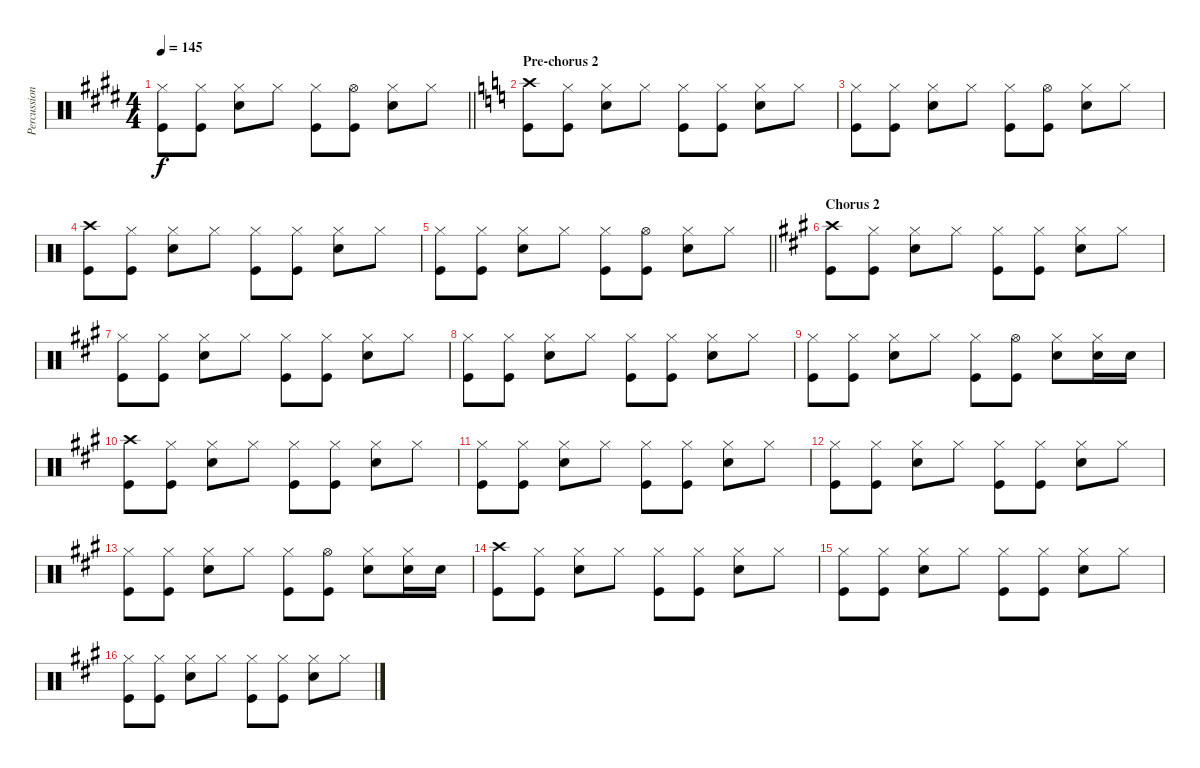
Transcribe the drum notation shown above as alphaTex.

\track ("Percussion" "Percussion") {instrument percussion}
\staff {score}
\articulation defaults
\ts (4 4)
\tempo 145
\clef neutral
\barLineRight lightlight
\ks e
("Hi-Hat (closed)" "Kick (hit)").8{dy f} ("Hi-Hat (closed)" "Kick (hit)").8 ("Hi-Hat (closed)" "Snare (hit) 2").8 "Hi-Hat (closed)".8 ("Hi-Hat (closed)" "Kick (hit)").8 ("Hi-Hat (open)" "Kick (hit)").8 ("Hi-Hat (closed)" "Snare (hit) 2").8 "Hi-Hat (closed)".8 |
\section ("" "Pre-chorus 2")
\ks c
("Crash high (hit)" "Kick (hit)").8 ("Hi-Hat (closed)" "Kick (hit)").8 ("Hi-Hat (closed)" "Snare (hit) 2").8 "Hi-Hat (closed)".8 ("Hi-Hat (closed)" "Kick (hit)").8 ("Hi-Hat (closed)" "Kick (hit)").8 ("Hi-Hat (closed)" "Snare (hit) 2").8 "Hi-Hat (closed)".8 |
("Hi-Hat (closed)" "Kick (hit)").8 ("Hi-Hat (closed)" "Kick (hit)").8 ("Hi-Hat (closed)" "Snare (hit) 2").8 "Hi-Hat (closed)".8 ("Hi-Hat (closed)" "Kick (hit)").8 ("Hi-Hat (open)" "Kick (hit)").8 ("Hi-Hat (closed)" "Snare (hit) 2").8 "Hi-Hat (closed)".8 |
("Crash high (hit)" "Kick (hit)").8 ("Hi-Hat (closed)" "Kick (hit)").8 ("Hi-Hat (closed)" "Snare (hit) 2").8 "Hi-Hat (closed)".8 ("Hi-Hat (closed)" "Kick (hit)").8 ("Hi-Hat (closed)" "Kick (hit)").8 ("Hi-Hat (closed)" "Snare (hit) 2").8 "Hi-Hat (closed)".8 |
\barLineRight lightlight
("Hi-Hat (closed)" "Kick (hit)").8 ("Hi-Hat (closed)" "Kick (hit)").8 ("Hi-Hat (closed)" "Snare (hit) 2").8 "Hi-Hat (closed)".8 ("Hi-Hat (closed)" "Kick (hit)").8 ("Hi-Hat (open)" "Kick (hit)").8 ("Hi-Hat (closed)" "Snare (hit) 2").8 "Hi-Hat (closed)".8 |
\section ("" "Chorus 2")
\ks a
("Crash high (hit)" "Kick (hit)").8 ("Hi-Hat (closed)" "Kick (hit)").8 ("Hi-Hat (closed)" "Snare (hit) 2").8 "Hi-Hat (closed)".8 ("Hi-Hat (closed)" "Kick (hit)").8 ("Hi-Hat (closed)" "Kick (hit)").8 ("Hi-Hat (closed)" "Snare (hit) 2").8 "Hi-Hat (closed)".8 |
("Hi-Hat (closed)" "Kick (hit)").8 ("Hi-Hat (closed)" "Kick (hit)").8 ("Hi-Hat (closed)" "Snare (hit) 2").8 "Hi-Hat (closed)".8 ("Hi-Hat (closed)" "Kick (hit)").8 ("Hi-Hat (closed)" "Kick (hit)").8 ("Hi-Hat (closed)" "Snare (hit) 2").8 "Hi-Hat (closed)".8 |
("Hi-Hat (closed)" "Kick (hit)").8 ("Hi-Hat (closed)" "Kick (hit)").8 ("Hi-Hat (closed)" "Snare (hit) 2").8 "Hi-Hat (closed)".8 ("Hi-Hat (closed)" "Kick (hit)").8 ("Hi-Hat (closed)" "Kick (hit)").8 ("Hi-Hat (closed)" "Snare (hit) 2").8 "Hi-Hat (closed)".8 |
("Hi-Hat (closed)" "Kick (hit)").8 ("Hi-Hat (closed)" "Kick (hit)").8 ("Hi-Hat (closed)" "Snare (hit) 2").8 "Hi-Hat (closed)".8 ("Hi-Hat (closed)" "Kick (hit)").8 ("Hi-Hat (open)" "Kick (hit)").8 ("Hi-Hat (closed)" "Snare (hit) 2").8 ("Hi-Hat (closed)" "Snare (hit) 2").16 "Snare (hit) 2".16 |
("Crash high (hit)" "Kick (hit)").8 ("Hi-Hat (closed)" "Kick (hit)").8 ("Hi-Hat (closed)" "Snare (hit) 2").8 "Hi-Hat (closed)".8 ("Hi-Hat (closed)" "Kick (hit)").8 ("Hi-Hat (closed)" "Kick (hit)").8 ("Hi-Hat (closed)" "Snare (hit) 2").8 "Hi-Hat (closed)".8 |
("Hi-Hat (closed)" "Kick (hit)").8 ("Hi-Hat (closed)" "Kick (hit)").8 ("Hi-Hat (closed)" "Snare (hit) 2").8 "Hi-Hat (closed)".8 ("Hi-Hat (closed)" "Kick (hit)").8 ("Hi-Hat (closed)" "Kick (hit)").8 ("Hi-Hat (closed)" "Snare (hit) 2").8 "Hi-Hat (closed)".8 |
("Hi-Hat (closed)" "Kick (hit)").8 ("Hi-Hat (closed)" "Kick (hit)").8 ("Hi-Hat (closed)" "Snare (hit) 2").8 "Hi-Hat (closed)".8 ("Hi-Hat (closed)" "Kick (hit)").8 ("Hi-Hat (closed)" "Kick (hit)").8 ("Hi-Hat (closed)" "Snare (hit) 2").8 "Hi-Hat (closed)".8 |
("Hi-Hat (closed)" "Kick (hit)").8 ("Hi-Hat (closed)" "Kick (hit)").8 ("Hi-Hat (closed)" "Snare (hit) 2").8 "Hi-Hat (closed)".8 ("Hi-Hat (closed)" "Kick (hit)").8 ("Hi-Hat (open)" "Kick (hit)").8 ("Hi-Hat (closed)" "Snare (hit) 2").8 ("Hi-Hat (closed)" "Snare (hit) 2").16 "Snare (hit) 2".16 |
("Crash high (hit)" "Kick (hit)").8 ("Hi-Hat (closed)" "Kick (hit)").8 ("Hi-Hat (closed)" "Snare (hit) 2").8 "Hi-Hat (closed)".8 ("Hi-Hat (closed)" "Kick (hit)").8 ("Hi-Hat (closed)" "Kick (hit)").8 ("Hi-Hat (closed)" "Snare (hit) 2").8 "Hi-Hat (closed)".8 |
("Hi-Hat (closed)" "Kick (hit)").8 ("Hi-Hat (closed)" "Kick (hit)").8 ("Hi-Hat (closed)" "Snare (hit) 2").8 "Hi-Hat (closed)".8 ("Hi-Hat (closed)" "Kick (hit)").8 ("Hi-Hat (closed)" "Kick (hit)").8 ("Hi-Hat (closed)" "Snare (hit) 2").8 "Hi-Hat (closed)".8 |
("Hi-Hat (closed)" "Kick (hit)").8 ("Hi-Hat (closed)" "Kick (hit)").8 ("Hi-Hat (closed)" "Snare (hit) 2").8 "Hi-Hat (closed)".8 ("Hi-Hat (closed)" "Kick (hit)").8 ("Hi-Hat (closed)" "Kick (hit)").8 ("Hi-Hat (closed)" "Snare (hit) 2").8 "Hi-Hat (closed)".8
